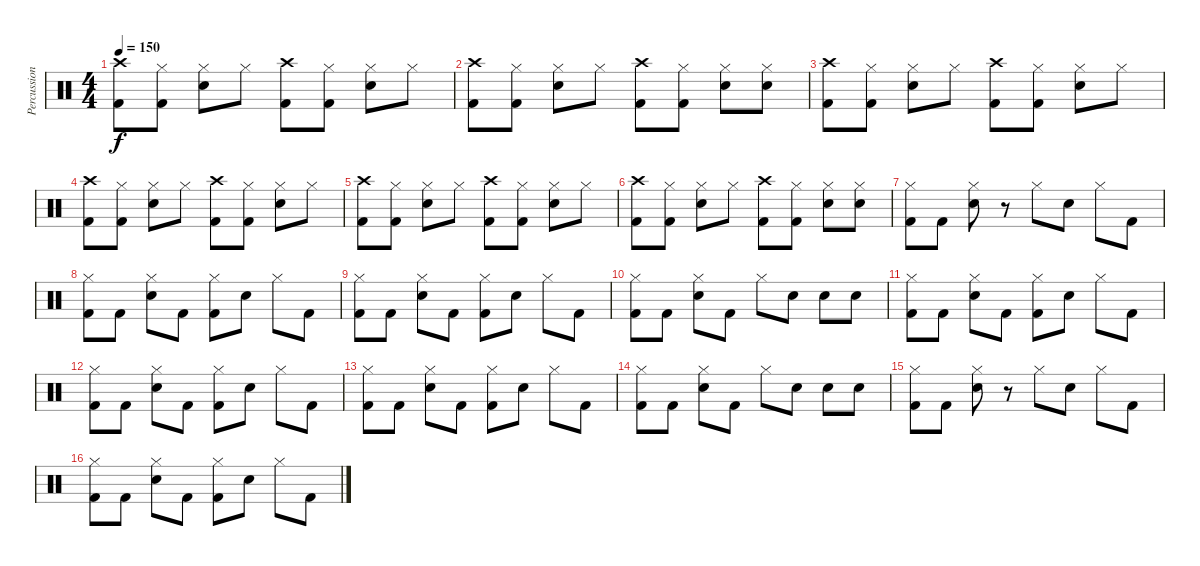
\track ("Percussion" "Percussion") {instrument percussion}
\staff {score}
\articulation defaults
\ts (4 4)
\tempo 150
\clef neutral
\ks c
("Crash high (hit)" "Kick (hit) 2").8{dy f} ("Hi-Hat (closed)" "Kick (hit) 2").8 ("Hi-Hat (closed)" "Electric Snare (hit)").8 "Hi-Hat (closed)".8 ("Crash high (hit)" "Kick (hit) 2").8 ("Hi-Hat (closed)" "Kick (hit) 2").8 ("Hi-Hat (closed)" "Electric Snare (hit)").8 "Hi-Hat (closed)".8 |
("Crash high (hit)" "Kick (hit) 2").8 ("Hi-Hat (closed)" "Kick (hit) 2").8 ("Hi-Hat (closed)" "Electric Snare (hit)").8 "Hi-Hat (closed)".8 ("Crash high (hit)" "Kick (hit) 2").8 ("Hi-Hat (closed)" "Kick (hit) 2").8 ("Hi-Hat (closed)" "Electric Snare (hit)").8 ("Hi-Hat (closed)" "Electric Snare (hit)").8 |
("Crash high (hit)" "Kick (hit) 2").8 ("Hi-Hat (closed)" "Kick (hit) 2").8 ("Hi-Hat (closed)" "Electric Snare (hit)").8 "Hi-Hat (closed)".8 ("Crash high (hit)" "Kick (hit) 2").8 ("Hi-Hat (closed)" "Kick (hit) 2").8 ("Hi-Hat (closed)" "Electric Snare (hit)").8 "Hi-Hat (closed)".8 |
("Crash high (hit)" "Kick (hit) 2").8 ("Hi-Hat (closed)" "Kick (hit) 2").8 ("Hi-Hat (closed)" "Electric Snare (hit)").8 "Hi-Hat (closed)".8 ("Crash high (hit)" "Kick (hit) 2").8 ("Hi-Hat (closed)" "Kick (hit) 2").8 ("Hi-Hat (closed)" "Electric Snare (hit)").8 "Hi-Hat (closed)".8 |
("Crash high (hit)" "Kick (hit) 2").8 ("Hi-Hat (closed)" "Kick (hit) 2").8 ("Hi-Hat (closed)" "Electric Snare (hit)").8 "Hi-Hat (closed)".8 ("Crash high (hit)" "Kick (hit) 2").8 ("Hi-Hat (closed)" "Kick (hit) 2").8 ("Hi-Hat (closed)" "Electric Snare (hit)").8 "Hi-Hat (closed)".8 |
("Crash high (hit)" "Kick (hit) 2").8 ("Hi-Hat (closed)" "Kick (hit) 2").8 ("Hi-Hat (closed)" "Electric Snare (hit)").8 "Hi-Hat (closed)".8 ("Crash high (hit)" "Kick (hit) 2").8 ("Hi-Hat (closed)" "Kick (hit) 2").8 ("Hi-Hat (closed)" "Electric Snare (hit)").8 ("Hi-Hat (closed)" "Electric Snare (hit)").8 |
("Hi-Hat (closed)" "Kick (hit) 2").8 "Kick (hit) 2".8 ("Hi-Hat (closed)" "Electric Snare (hit)").8 r.8 "Hi-Hat (closed)".8 "Electric Snare (hit)".8 "Hi-Hat (closed)".8 "Kick (hit) 2".8 |
("Hi-Hat (closed)" "Kick (hit) 2").8 "Kick (hit) 2".8 ("Hi-Hat (closed)" "Electric Snare (hit)").8 "Kick (hit) 2".8 ("Hi-Hat (closed)" "Kick (hit) 2").8 "Electric Snare (hit)".8 "Hi-Hat (closed)".8 "Kick (hit) 2".8 |
("Hi-Hat (closed)" "Kick (hit) 2").8 "Kick (hit) 2".8 ("Hi-Hat (closed)" "Electric Snare (hit)").8 "Kick (hit) 2".8 ("Hi-Hat (closed)" "Kick (hit) 2").8 "Electric Snare (hit)".8 "Hi-Hat (closed)".8 "Kick (hit) 2".8 |
("Hi-Hat (closed)" "Kick (hit) 2").8 "Kick (hit) 2".8 ("Hi-Hat (closed)" "Electric Snare (hit)").8 "Kick (hit) 2".8 "Hi-Hat (closed)".8 "Electric Snare (hit)".8 "Electric Snare (hit)".8 "Electric Snare (hit)".8 |
("Hi-Hat (closed)" "Kick (hit) 2").8 "Kick (hit) 2".8 ("Hi-Hat (closed)" "Electric Snare (hit)").8 "Kick (hit) 2".8 ("Hi-Hat (closed)" "Kick (hit) 2").8 "Electric Snare (hit)".8 "Hi-Hat (closed)".8 "Kick (hit) 2".8 |
("Hi-Hat (closed)" "Kick (hit) 2").8 "Kick (hit) 2".8 ("Hi-Hat (closed)" "Electric Snare (hit)").8 "Kick (hit) 2".8 ("Hi-Hat (closed)" "Kick (hit) 2").8 "Electric Snare (hit)".8 "Hi-Hat (closed)".8 "Kick (hit) 2".8 |
("Hi-Hat (closed)" "Kick (hit) 2").8 "Kick (hit) 2".8 ("Hi-Hat (closed)" "Electric Snare (hit)").8 "Kick (hit) 2".8 ("Hi-Hat (closed)" "Kick (hit) 2").8 "Electric Snare (hit)".8 "Hi-Hat (closed)".8 "Kick (hit) 2".8 |
("Hi-Hat (closed)" "Kick (hit) 2").8 "Kick (hit) 2".8 ("Hi-Hat (closed)" "Electric Snare (hit)").8 "Kick (hit) 2".8 "Hi-Hat (closed)".8 "Electric Snare (hit)".8 "Electric Snare (hit)".8 "Electric Snare (hit)".8 |
("Hi-Hat (closed)" "Kick (hit) 2").8 "Kick (hit) 2".8 ("Hi-Hat (closed)" "Electric Snare (hit)").8 r.8 "Hi-Hat (closed)".8 "Electric Snare (hit)".8 "Hi-Hat (closed)".8 "Kick (hit) 2".8 |
("Hi-Hat (closed)" "Kick (hit) 2").8 "Kick (hit) 2".8 ("Hi-Hat (closed)" "Electric Snare (hit)").8 "Kick (hit) 2".8 ("Hi-Hat (closed)" "Kick (hit) 2").8 "Electric Snare (hit)".8 "Hi-Hat (closed)".8 "Kick (hit) 2".8
